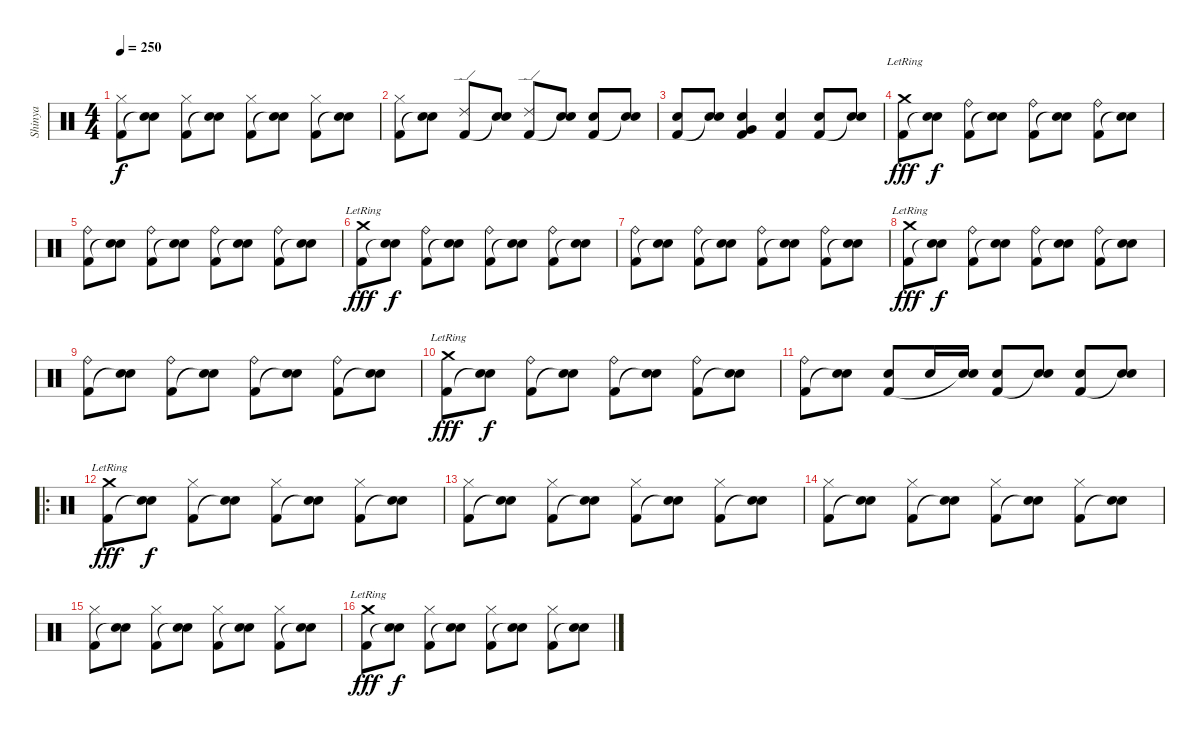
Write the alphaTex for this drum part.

\track ("Shinya" "Shinya") {instrument percussion}
\staff {score}
\articulation defaults
\ts (4 4)
\tempo 250
\clef neutral
\ks c
("Hi-Hat (closed)" "Kick (hit) 2").8{dy f} ("Electric Snare (hit)" "Snare (hit)"{t}).8 ("Hi-Hat (closed)" "Kick (hit) 2").8 ("Electric Snare (hit)" "Snare (hit)"{t}).8 ("Hi-Hat (closed)" "Kick (hit) 2").8 ("Electric Snare (hit)" "Snare (hit)"{t}).8 ("Hi-Hat (closed)" "Kick (hit) 2").8 ("Electric Snare (hit)" "Snare (hit)"{t}).8 |
("Hi-Hat (closed)" "Kick (hit) 2").8 ("Electric Snare (hit)" "Snare (hit)"{t}).8 ("Ride (edge) 2" "Kick (hit) 2").8 ("Electric Snare (hit)" "Snare (hit)"{t}).8 ("Ride (edge) 2" "Kick (hit) 2").8 ("Electric Snare (hit)" "Snare (hit)"{t}).8 ("Electric Snare (hit)" "Kick (hit) 2").8 ("Electric Snare (hit)" "Snare (hit)"{t}).8 |
("Electric Snare (hit)" "Kick (hit) 2").8 ("Electric Snare (hit)" "Snare (hit)"{t}).8 ("Electric Snare (hit)" "Very Low Tom (hit)" "Kick (hit) 2").4 ("Electric Snare (hit)" "Kick (hit) 2").4 ("Electric Snare (hit)" "Kick (hit) 2").8 ("Electric Snare (hit)" "Snare (hit)"{t}).8 |
("Crash medium (hit)"{lr} "Kick (hit) 2").8{dy fff} ("Electric Snare (hit)" "Snare (hit)"{t}).8{dy f} ("Ride (bell)" "Kick (hit) 2").8 ("Electric Snare (hit)" "Snare (hit)"{t}).8 ("Ride (bell)" "Kick (hit) 2").8 ("Electric Snare (hit)" "Snare (hit)"{t}).8 ("Ride (bell)" "Kick (hit) 2").8 ("Electric Snare (hit)" "Snare (hit)"{t}).8 |
("Ride (bell)" "Kick (hit) 2").8 ("Electric Snare (hit)" "Snare (hit)"{t}).8 ("Ride (bell)" "Kick (hit) 2").8 ("Electric Snare (hit)" "Snare (hit)"{t}).8 ("Ride (bell)" "Kick (hit) 2").8 ("Electric Snare (hit)" "Snare (hit)"{t}).8 ("Ride (bell)" "Kick (hit) 2").8 ("Electric Snare (hit)" "Snare (hit)"{t}).8 |
("Crash medium (hit)"{lr} "Kick (hit) 2").8{dy fff} ("Electric Snare (hit)" "Snare (hit)"{t}).8{dy f} ("Ride (bell)" "Kick (hit) 2").8 ("Electric Snare (hit)" "Snare (hit)"{t}).8 ("Ride (bell)" "Kick (hit) 2").8 ("Electric Snare (hit)" "Snare (hit)"{t}).8 ("Ride (bell)" "Kick (hit) 2").8 ("Electric Snare (hit)" "Snare (hit)"{t}).8 |
("Ride (bell)" "Kick (hit) 2").8 ("Electric Snare (hit)" "Snare (hit)"{t}).8 ("Ride (bell)" "Kick (hit) 2").8 ("Electric Snare (hit)" "Snare (hit)"{t}).8 ("Ride (bell)" "Kick (hit) 2").8 ("Electric Snare (hit)" "Snare (hit)"{t}).8 ("Ride (bell)" "Kick (hit) 2").8 ("Electric Snare (hit)" "Snare (hit)"{t}).8 |
("Crash medium (hit)"{lr} "Kick (hit) 2").8{dy fff} ("Electric Snare (hit)" "Snare (hit)"{t}).8{dy f} ("Ride (bell)" "Kick (hit) 2").8 ("Electric Snare (hit)" "Snare (hit)"{t}).8 ("Ride (bell)" "Kick (hit) 2").8 ("Electric Snare (hit)" "Snare (hit)"{t}).8 ("Ride (bell)" "Kick (hit) 2").8 ("Electric Snare (hit)" "Snare (hit)"{t}).8 |
("Ride (bell)" "Kick (hit) 2").8 ("Electric Snare (hit)" "Snare (hit)"{t}).8 ("Ride (bell)" "Kick (hit) 2").8 ("Electric Snare (hit)" "Snare (hit)"{t}).8 ("Ride (bell)" "Kick (hit) 2").8 ("Electric Snare (hit)" "Snare (hit)"{t}).8 ("Ride (bell)" "Kick (hit) 2").8 ("Electric Snare (hit)" "Snare (hit)"{t}).8 |
("Crash medium (hit)"{lr} "Kick (hit) 2").8{dy fff} ("Electric Snare (hit)" "Snare (hit)"{t}).8{dy f} ("Ride (bell)" "Kick (hit) 2").8 ("Electric Snare (hit)" "Snare (hit)"{t}).8 ("Ride (bell)" "Kick (hit) 2").8 ("Electric Snare (hit)" "Snare (hit)"{t}).8 ("Ride (bell)" "Kick (hit) 2").8 ("Electric Snare (hit)" "Snare (hit)"{t}).8 |
("Ride (bell)" "Kick (hit) 2").8 ("Electric Snare (hit)" "Snare (hit)"{t}).8 ("Electric Snare (hit)" "Kick (hit) 2").8 "Electric Snare (hit)".16 ("Electric Snare (hit)" "Snare (hit)"{t}).16 ("Electric Snare (hit)" "Kick (hit) 2").8 ("Electric Snare (hit)" "Snare (hit)"{t}).8 ("Electric Snare (hit)" "Kick (hit) 2").8 ("Electric Snare (hit)" "Snare (hit)"{t}).8 |
\ro
("Crash medium (hit)"{lr} "Kick (hit) 2").8{dy fff} ("Electric Snare (hit)" "Snare (hit)"{t}).8{dy f} ("Hi-Hat (closed)" "Kick (hit) 2").8 ("Electric Snare (hit)" "Snare (hit)"{t}).8 ("Hi-Hat (closed)" "Kick (hit) 2").8 ("Electric Snare (hit)" "Snare (hit)"{t}).8 ("Hi-Hat (closed)" "Kick (hit) 2").8 ("Electric Snare (hit)" "Snare (hit)"{t}).8 |
("Hi-Hat (closed)" "Kick (hit) 2").8 ("Electric Snare (hit)" "Snare (hit)"{t}).8 ("Hi-Hat (closed)" "Kick (hit) 2").8 ("Electric Snare (hit)" "Snare (hit)"{t}).8 ("Hi-Hat (closed)" "Kick (hit) 2").8 ("Electric Snare (hit)" "Snare (hit)"{t}).8 ("Hi-Hat (closed)" "Kick (hit) 2").8 ("Electric Snare (hit)" "Snare (hit)"{t}).8 |
("Hi-Hat (closed)" "Kick (hit) 2").8 ("Electric Snare (hit)" "Snare (hit)"{t}).8 ("Hi-Hat (closed)" "Kick (hit) 2").8 ("Electric Snare (hit)" "Snare (hit)"{t}).8 ("Hi-Hat (closed)" "Kick (hit) 2").8 ("Electric Snare (hit)" "Snare (hit)"{t}).8 ("Hi-Hat (closed)" "Kick (hit) 2").8 ("Electric Snare (hit)" "Snare (hit)"{t}).8 |
("Hi-Hat (closed)" "Kick (hit) 2").8 ("Electric Snare (hit)" "Snare (hit)"{t}).8 ("Hi-Hat (closed)" "Kick (hit) 2").8 ("Electric Snare (hit)" "Snare (hit)"{t}).8 ("Hi-Hat (closed)" "Kick (hit) 2").8 ("Electric Snare (hit)" "Snare (hit)"{t}).8 ("Hi-Hat (closed)" "Kick (hit) 2").8 ("Electric Snare (hit)" "Snare (hit)"{t}).8 |
("Crash medium (hit)"{lr} "Kick (hit) 2").8{dy fff} ("Electric Snare (hit)" "Snare (hit)"{t}).8{dy f} ("Hi-Hat (closed)" "Kick (hit) 2").8 ("Electric Snare (hit)" "Snare (hit)"{t}).8 ("Hi-Hat (closed)" "Kick (hit) 2").8 ("Electric Snare (hit)" "Snare (hit)"{t}).8 ("Hi-Hat (closed)" "Kick (hit) 2").8 ("Electric Snare (hit)" "Snare (hit)"{t}).8
